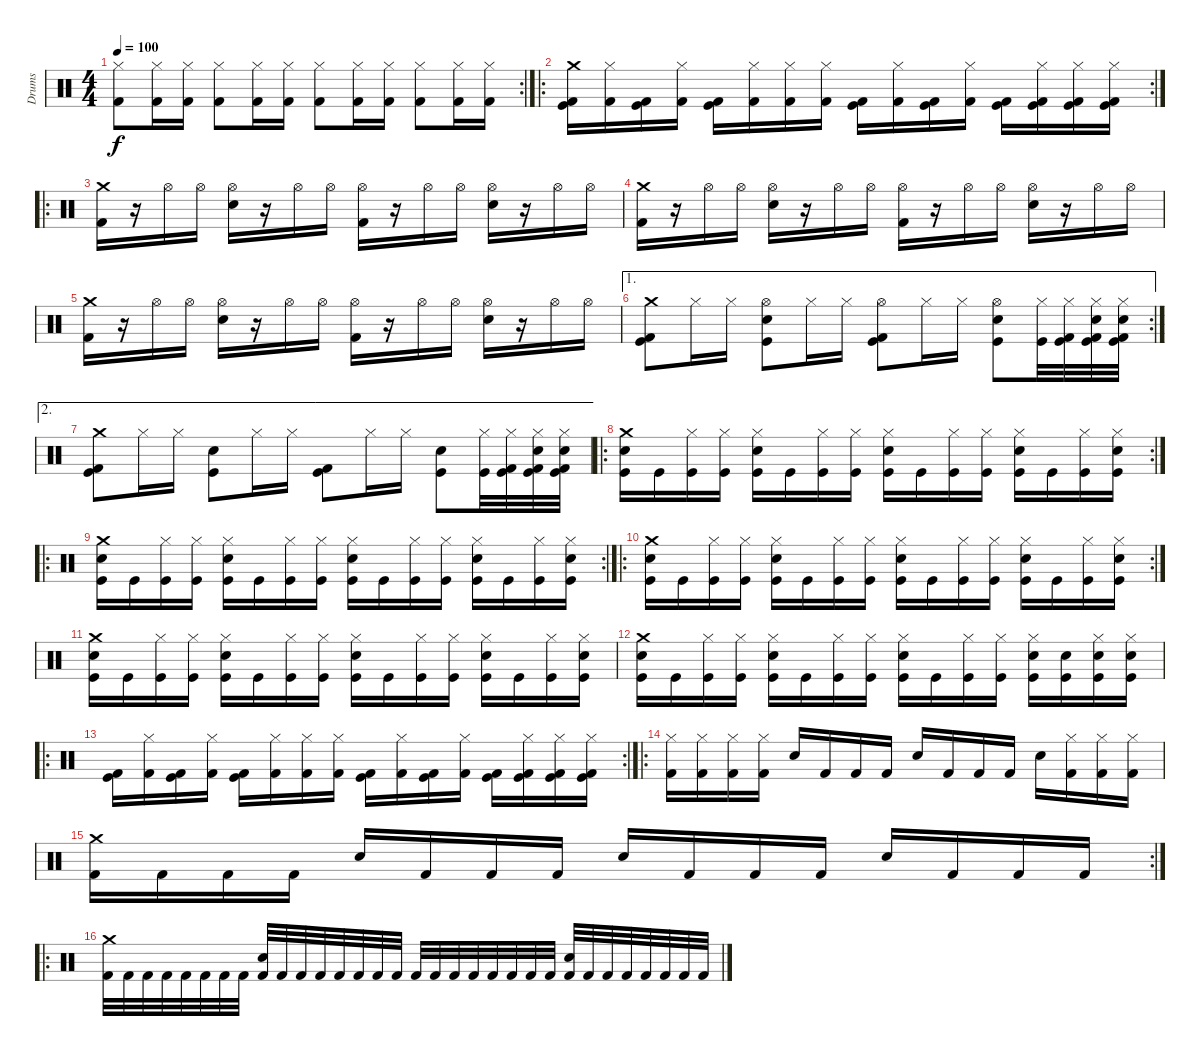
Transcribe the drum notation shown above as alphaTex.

\track ("Drums" "Drums") {instrument percussion}
\staff {score}
\articulation defaults
\rc 2
\ts (4 4)
\tempo 100
\clef neutral
\ks c
("Hi-Hat (closed)" "Kick (hit) 2").8{dy f} ("Hi-Hat (closed)" "Kick (hit) 2").16 ("Hi-Hat (closed)" "Kick (hit) 2").16 ("Hi-Hat (closed)" "Kick (hit) 2").8 ("Hi-Hat (closed)" "Kick (hit) 2").16 ("Hi-Hat (closed)" "Kick (hit) 2").16 ("Hi-Hat (closed)" "Kick (hit) 2").8 ("Hi-Hat (closed)" "Kick (hit) 2").16 ("Hi-Hat (closed)" "Kick (hit) 2").16 ("Hi-Hat (closed)" "Kick (hit) 2").8 ("Hi-Hat (closed)" "Kick (hit) 2").16 ("Hi-Hat (closed)" "Kick (hit) 2").16 |
\ro
\rc 2
("Kick (hit) 2" "Crash medium (hit)" "Kick (hit)").16 ("Kick (hit) 2" "Hi-Hat (closed)").16 ("Kick (hit) 2" "Kick (hit)").16 ("Kick (hit) 2" "Hi-Hat (closed)").16 ("Kick (hit) 2" "Kick (hit)").16 ("Kick (hit) 2" "Hi-Hat (closed)").16 ("Kick (hit) 2" "Hi-Hat (closed)").16 ("Kick (hit) 2" "Hi-Hat (closed)").16 ("Kick (hit) 2" "Kick (hit)").16 ("Kick (hit) 2" "Hi-Hat (closed)").16 ("Kick (hit) 2" "Kick (hit)").16 ("Kick (hit) 2" "Hi-Hat (closed)").16 ("Kick (hit) 2" "Kick (hit)").16 ("Kick (hit) 2" "Hi-Hat (closed)" "Kick (hit)").16 ("Kick (hit) 2" "Hi-Hat (closed)" "Kick (hit)").16 ("Kick (hit) 2" "Hi-Hat (closed)" "Kick (hit)").16 |
\ro
("Kick (hit) 2" "Crash medium (hit)").16 r.16 "Hi-Hat (open)".16 "Hi-Hat (open)".16 ("Snare (hit) 2" "Hi-Hat (open)").16 r.16 "Hi-Hat (open)".16 "Hi-Hat (open)".16 ("Kick (hit) 2" "Hi-Hat (open)").16 r.16 "Hi-Hat (open)".16 "Hi-Hat (open)".16 ("Snare (hit) 2" "Hi-Hat (open)").16 r.16 "Hi-Hat (open)".16 "Hi-Hat (open)".16 |
("Kick (hit) 2" "Crash medium (hit)").16 r.16 "Hi-Hat (open)".16 "Hi-Hat (open)".16 ("Snare (hit) 2" "Hi-Hat (open)").16 r.16 "Hi-Hat (open)".16 "Hi-Hat (open)".16 ("Kick (hit) 2" "Hi-Hat (open)").16 r.16 "Hi-Hat (open)".16 "Hi-Hat (open)".16 ("Snare (hit) 2" "Hi-Hat (open)").16 r.16 "Hi-Hat (open)".16 "Hi-Hat (open)".16 |
("Kick (hit) 2" "Crash medium (hit)").16 r.16 "Hi-Hat (open)".16 "Hi-Hat (open)".16 ("Snare (hit) 2" "Hi-Hat (open)").16 r.16 "Hi-Hat (open)".16 "Hi-Hat (open)".16 ("Kick (hit) 2" "Hi-Hat (open)").16 r.16 "Hi-Hat (open)".16 "Hi-Hat (open)".16 ("Snare (hit) 2" "Hi-Hat (open)").16 r.16 "Hi-Hat (open)".16 "Hi-Hat (open)".16 |
\ae 1
\rc 2
("Kick (hit) 2" "Crash medium (hit)" "Kick (hit)").8 "Hi-Hat (closed)".16 "Hi-Hat (closed)".16 ("Snare (hit) 2" "Hi-Hat (open)" "Kick (hit)").8 "Hi-Hat (closed)".16 "Hi-Hat (closed)".16 ("Kick (hit) 2" "Hi-Hat (open)" "Kick (hit)").8 "Hi-Hat (closed)".16 "Hi-Hat (closed)".16 ("Snare (hit) 2" "Hi-Hat (open)" "Kick (hit)").8 ("Hi-Hat (closed)" "Kick (hit)").32 ("Kick (hit) 2" "Hi-Hat (closed)" "Kick (hit)").32 ("Snare (hit) 2" "Kick (hit) 2" "Hi-Hat (closed)" "Kick (hit)").32 ("Snare (hit) 2" "Kick (hit) 2" "Hi-Hat (closed)" "Kick (hit)").32 |
\ae 2
("Kick (hit) 2" "Crash medium (hit)" "Kick (hit)").8 "Hi-Hat (closed)".16 "Hi-Hat (closed)".16 ("Snare (hit) 2" "Kick (hit)").8 "Hi-Hat (closed)".16 "Hi-Hat (closed)".16 ("Kick (hit) 2" "Kick (hit)").8 "Hi-Hat (closed)".16 "Hi-Hat (closed)".16 ("Snare (hit) 2" "Kick (hit)").8 ("Hi-Hat (closed)" "Kick (hit)").32 ("Kick (hit) 2" "Hi-Hat (closed)" "Kick (hit)").32 ("Snare (hit) 2" "Kick (hit) 2" "Hi-Hat (closed)" "Kick (hit)").32 ("Snare (hit) 2" "Kick (hit) 2" "Hi-Hat (closed)" "Kick (hit)").32 |
\ro
\rc 2
("Snare (hit) 2" "Crash medium (hit)" "Kick (hit)").16 "Kick (hit)".16 ("Hi-Hat (closed)" "Kick (hit)").16 ("Hi-Hat (closed)" "Kick (hit)").16 ("Snare (hit) 2" "Hi-Hat (closed)" "Kick (hit)").16 "Kick (hit)".16 ("Hi-Hat (closed)" "Kick (hit)").16 ("Hi-Hat (closed)" "Kick (hit)").16 ("Snare (hit) 2" "Hi-Hat (closed)" "Kick (hit)").16 "Kick (hit)".16 ("Hi-Hat (closed)" "Kick (hit)").16 ("Hi-Hat (closed)" "Kick (hit)").16 ("Snare (hit) 2" "Hi-Hat (closed)" "Kick (hit)").16 "Kick (hit)".16 ("Hi-Hat (closed)" "Kick (hit)").16 ("Snare (hit) 2" "Hi-Hat (closed)" "Kick (hit)").16 |
\ro
\rc 2
("Snare (hit) 2" "Crash medium (hit)" "Kick (hit)").16 "Kick (hit)".16 ("Hi-Hat (closed)" "Kick (hit)").16 ("Hi-Hat (closed)" "Kick (hit)").16 ("Snare (hit) 2" "Hi-Hat (closed)" "Kick (hit)").16 "Kick (hit)".16 ("Hi-Hat (closed)" "Kick (hit)").16 ("Hi-Hat (closed)" "Kick (hit)").16 ("Snare (hit) 2" "Hi-Hat (closed)" "Kick (hit)").16 "Kick (hit)".16 ("Hi-Hat (closed)" "Kick (hit)").16 ("Hi-Hat (closed)" "Kick (hit)").16 ("Snare (hit) 2" "Hi-Hat (closed)" "Kick (hit)").16 "Kick (hit)".16 ("Hi-Hat (closed)" "Kick (hit)").16 ("Snare (hit) 2" "Hi-Hat (closed)" "Kick (hit)").16 |
\ro
\rc 2
("Snare (hit) 2" "Crash medium (hit)" "Kick (hit)").16 "Kick (hit)".16 ("Hi-Hat (closed)" "Kick (hit)").16 ("Hi-Hat (closed)" "Kick (hit)").16 ("Snare (hit) 2" "Hi-Hat (closed)" "Kick (hit)").16 "Kick (hit)".16 ("Hi-Hat (closed)" "Kick (hit)").16 ("Hi-Hat (closed)" "Kick (hit)").16 ("Snare (hit) 2" "Hi-Hat (closed)" "Kick (hit)").16 "Kick (hit)".16 ("Hi-Hat (closed)" "Kick (hit)").16 ("Hi-Hat (closed)" "Kick (hit)").16 ("Snare (hit) 2" "Hi-Hat (closed)" "Kick (hit)").16 "Kick (hit)".16 ("Hi-Hat (closed)" "Kick (hit)").16 ("Snare (hit) 2" "Hi-Hat (closed)" "Kick (hit)").16 |
("Snare (hit) 2" "Crash medium (hit)" "Kick (hit)").16 "Kick (hit)".16 ("Hi-Hat (closed)" "Kick (hit)").16 ("Hi-Hat (closed)" "Kick (hit)").16 ("Snare (hit) 2" "Hi-Hat (closed)" "Kick (hit)").16 "Kick (hit)".16 ("Hi-Hat (closed)" "Kick (hit)").16 ("Hi-Hat (closed)" "Kick (hit)").16 ("Snare (hit) 2" "Hi-Hat (closed)" "Kick (hit)").16 "Kick (hit)".16 ("Hi-Hat (closed)" "Kick (hit)").16 ("Hi-Hat (closed)" "Kick (hit)").16 ("Snare (hit) 2" "Hi-Hat (closed)" "Kick (hit)").16 "Kick (hit)".16 ("Hi-Hat (closed)" "Kick (hit)").16 ("Snare (hit) 2" "Hi-Hat (closed)" "Kick (hit)").16 |
("Snare (hit) 2" "Crash medium (hit)" "Kick (hit)").16 "Kick (hit)".16 ("Hi-Hat (closed)" "Kick (hit)").16 ("Hi-Hat (closed)" "Kick (hit)").16 ("Snare (hit) 2" "Hi-Hat (closed)" "Kick (hit)").16 "Kick (hit)".16 ("Hi-Hat (closed)" "Kick (hit)").16 ("Hi-Hat (closed)" "Kick (hit)").16 ("Snare (hit) 2" "Hi-Hat (closed)" "Kick (hit)").16 "Kick (hit)".16 ("Hi-Hat (closed)" "Kick (hit)").16 ("Hi-Hat (closed)" "Kick (hit)").16 ("Snare (hit) 2" "Hi-Hat (closed)" "Kick (hit)").16 ("Snare (hit) 2" "Kick (hit)").16 ("Snare (hit) 2" "Hi-Hat (closed)" "Kick (hit)").16 ("Snare (hit) 2" "Hi-Hat (closed)" "Kick (hit)").16 |
\ro
\rc 2
("Kick (hit) 2" "Kick (hit)").16 ("Kick (hit) 2" "Hi-Hat (closed)").16 ("Kick (hit) 2" "Kick (hit)").16 ("Kick (hit) 2" "Hi-Hat (closed)").16 ("Kick (hit) 2" "Kick (hit)").16 ("Kick (hit) 2" "Hi-Hat (closed)").16 ("Kick (hit) 2" "Hi-Hat (closed)").16 ("Kick (hit) 2" "Hi-Hat (closed)").16 ("Kick (hit) 2" "Kick (hit)").16 ("Kick (hit) 2" "Hi-Hat (closed)").16 ("Kick (hit) 2" "Kick (hit)").16 ("Kick (hit) 2" "Hi-Hat (closed)").16 ("Kick (hit) 2" "Kick (hit)").16 ("Kick (hit) 2" "Hi-Hat (closed)" "Kick (hit)").16 ("Kick (hit) 2" "Hi-Hat (closed)" "Kick (hit)").16 ("Kick (hit) 2" "Hi-Hat (closed)" "Kick (hit)").16 |
\ro
("Kick (hit) 2" "Hi-Hat (closed)").16 ("Kick (hit) 2" "Hi-Hat (closed)").16 ("Kick (hit) 2" "Hi-Hat (closed)").16 ("Kick (hit) 2" "Hi-Hat (closed)").16 "Snare (hit) 2".16 "Kick (hit) 2".16 "Kick (hit) 2".16 "Kick (hit) 2".16 "Snare (hit) 2".16 "Kick (hit) 2".16 "Kick (hit) 2".16 "Kick (hit) 2".16 "Snare (hit) 2".16 ("Kick (hit) 2" "Hi-Hat (closed)").16 ("Kick (hit) 2" "Hi-Hat (closed)").16 ("Kick (hit) 2" "Hi-Hat (closed)").16 |
\rc 2
("Kick (hit) 2" "Crash medium (hit)").16 "Kick (hit) 2".16 "Kick (hit) 2".16 "Kick (hit) 2".16 "Snare (hit) 2".16 "Kick (hit) 2".16 "Kick (hit) 2".16 "Kick (hit) 2".16 "Snare (hit) 2".16 "Kick (hit) 2".16 "Kick (hit) 2".16 "Kick (hit) 2".16 "Snare (hit) 2".16 "Kick (hit) 2".16 "Kick (hit) 2".16 "Kick (hit) 2".16 |
\ro
("Crash medium (hit)" "Kick (hit) 2").32 "Kick (hit) 2".32 "Kick (hit) 2".32 "Kick (hit) 2".32 "Kick (hit) 2".32 "Kick (hit) 2".32 "Kick (hit) 2".32 "Kick (hit) 2".32 ("Snare (hit) 2" "Kick (hit) 2").32 "Kick (hit) 2".32 "Kick (hit) 2".32 "Kick (hit) 2".32 "Kick (hit) 2".32 "Kick (hit) 2".32 "Kick (hit) 2".32 "Kick (hit) 2".32 "Kick (hit) 2".32 "Kick (hit) 2".32 "Kick (hit) 2".32 "Kick (hit) 2".32 "Kick (hit) 2".32 "Kick (hit) 2".32 "Kick (hit) 2".32 "Kick (hit) 2".32 ("Snare (hit) 2" "Kick (hit) 2").32 "Kick (hit) 2".32 "Kick (hit) 2".32 "Kick (hit) 2".32 "Kick (hit) 2".32 "Kick (hit) 2".32 "Kick (hit) 2".32 "Kick (hit) 2".32
